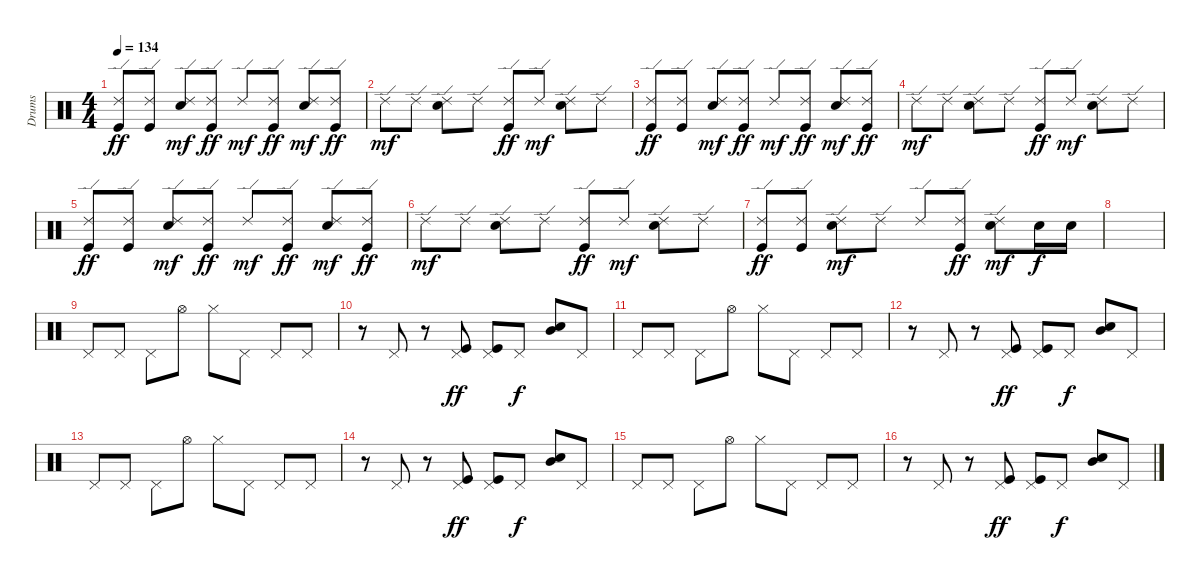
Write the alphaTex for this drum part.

\track ("Drums" "Drums") {instrument percussion}
\staff {score}
\articulation defaults
\ts (4 4)
\tempo 134
\clef neutral
\ks c
("Ride (edge) 2" "Kick (hit)").8{dy ff} ("Ride (edge) 2" "Kick (hit)").8 ("Ride (edge) 2" "Snare (hit) 2").8{dy mf} ("Ride (edge) 2" "Kick (hit)").8{dy ff} "Ride (edge) 2".8{dy mf} ("Ride (edge) 2" "Kick (hit)").8{dy ff} ("Ride (edge) 2" "Snare (hit) 2").8{dy mf} ("Ride (edge) 2" "Kick (hit)").8{dy ff} |
"Ride (edge) 2".8{dy mf} "Ride (edge) 2".8 ("Ride (edge) 2" "Snare (hit) 2").8 "Ride (edge) 2".8 ("Ride (edge) 2" "Kick (hit)").8{dy ff} "Ride (edge) 2".8{dy mf} ("Ride (edge) 2" "Snare (hit) 2").8 "Ride (edge) 2".8 |
("Ride (edge) 2" "Kick (hit)").8{dy ff} ("Ride (edge) 2" "Kick (hit)").8 ("Ride (edge) 2" "Snare (hit) 2").8{dy mf} ("Ride (edge) 2" "Kick (hit)").8{dy ff} "Ride (edge) 2".8{dy mf} ("Ride (edge) 2" "Kick (hit)").8{dy ff} ("Ride (edge) 2" "Snare (hit) 2").8{dy mf} ("Ride (edge) 2" "Kick (hit)").8{dy ff} |
"Ride (edge) 2".8{dy mf} "Ride (edge) 2".8 ("Ride (edge) 2" "Snare (hit) 2").8 "Ride (edge) 2".8 ("Ride (edge) 2" "Kick (hit)").8{dy ff} "Ride (edge) 2".8{dy mf} ("Ride (edge) 2" "Snare (hit) 2").8 "Ride (edge) 2".8 |
("Ride (edge) 2" "Kick (hit)").8{dy ff} ("Ride (edge) 2" "Kick (hit)").8 ("Ride (edge) 2" "Snare (hit) 2").8{dy mf} ("Ride (edge) 2" "Kick (hit)").8{dy ff} "Ride (edge) 2".8{dy mf} ("Ride (edge) 2" "Kick (hit)").8{dy ff} ("Ride (edge) 2" "Snare (hit) 2").8{dy mf} ("Ride (edge) 2" "Kick (hit)").8{dy ff} |
"Ride (edge) 2".8{dy mf} "Ride (edge) 2".8 ("Ride (edge) 2" "Snare (hit) 2").8 "Ride (edge) 2".8 ("Ride (edge) 2" "Kick (hit)").8{dy ff} "Ride (edge) 2".8{dy mf} ("Ride (edge) 2" "Snare (hit) 2").8 "Ride (edge) 2".8 |
("Ride (edge) 2" "Kick (hit)").8{dy ff} ("Ride (edge) 2" "Kick (hit)").8 ("Ride (edge) 2" "Snare (hit) 2").8{dy mf} "Ride (edge) 2".8 "Ride (edge) 2".8 ("Ride (edge) 2" "Kick (hit)").8{dy ff} ("Ride (edge) 2" "Snare (hit) 2").8{dy mf} "Snare (hit) 2".16{dy f} "Snare (hit) 2".16 |
|
"Pedal Hi-Hat (hit)".8 "Pedal Hi-Hat (hit)".8 "Pedal Hi-Hat (hit)".8 "Hi-Hat (open)".8 "Hi-Hat (closed)".8 "Pedal Hi-Hat (hit)".8 "Pedal Hi-Hat (hit)".8 "Pedal Hi-Hat (hit)".8 |
r.8 "Pedal Hi-Hat (hit)".8 r.8 ("Pedal Hi-Hat (hit)" "Kick (hit)").8{dy ff} ("Pedal Hi-Hat (hit)" "Kick (hit)").8 "Pedal Hi-Hat (hit)".8{dy f} ("Mid Tom (hit)" "Snare (hit) 2").8 "Pedal Hi-Hat (hit)".8 |
"Pedal Hi-Hat (hit)".8 "Pedal Hi-Hat (hit)".8 "Pedal Hi-Hat (hit)".8 "Hi-Hat (open)".8 "Hi-Hat (closed)".8 "Pedal Hi-Hat (hit)".8 "Pedal Hi-Hat (hit)".8 "Pedal Hi-Hat (hit)".8 |
r.8 "Pedal Hi-Hat (hit)".8 r.8 ("Pedal Hi-Hat (hit)" "Kick (hit)").8{dy ff} ("Pedal Hi-Hat (hit)" "Kick (hit)").8 "Pedal Hi-Hat (hit)".8{dy f} ("Mid Tom (hit)" "Snare (hit) 2").8 "Pedal Hi-Hat (hit)".8 |
"Pedal Hi-Hat (hit)".8 "Pedal Hi-Hat (hit)".8 "Pedal Hi-Hat (hit)".8 "Hi-Hat (open)".8 "Hi-Hat (closed)".8 "Pedal Hi-Hat (hit)".8 "Pedal Hi-Hat (hit)".8 "Pedal Hi-Hat (hit)".8 |
r.8 "Pedal Hi-Hat (hit)".8 r.8 ("Pedal Hi-Hat (hit)" "Kick (hit)").8{dy ff} ("Pedal Hi-Hat (hit)" "Kick (hit)").8 "Pedal Hi-Hat (hit)".8{dy f} ("Mid Tom (hit)" "Snare (hit) 2").8 "Pedal Hi-Hat (hit)".8 |
"Pedal Hi-Hat (hit)".8 "Pedal Hi-Hat (hit)".8 "Pedal Hi-Hat (hit)".8 "Hi-Hat (open)".8 "Hi-Hat (closed)".8 "Pedal Hi-Hat (hit)".8 "Pedal Hi-Hat (hit)".8 "Pedal Hi-Hat (hit)".8 |
r.8 "Pedal Hi-Hat (hit)".8 r.8 ("Pedal Hi-Hat (hit)" "Kick (hit)").8{dy ff} ("Pedal Hi-Hat (hit)" "Kick (hit)").8 "Pedal Hi-Hat (hit)".8{dy f} ("Mid Tom (hit)" "Snare (hit) 2").8 "Pedal Hi-Hat (hit)".8
